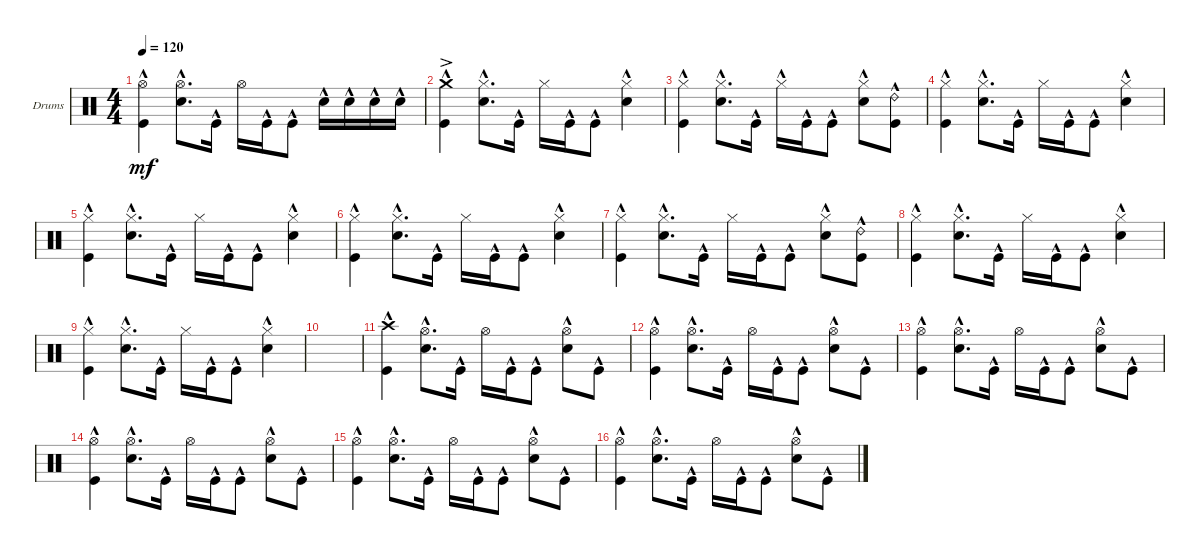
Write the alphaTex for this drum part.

\defaultSystemsLayout 4
\bracketExtendMode groupsimilarinstruments
\firstSystemTrackNameOrientation horizontal
\otherSystemsTrackNameOrientation horizontal
\track ("Drumkit" "Drums") {instrument percussion}
\staff {score}
\articulation defaults
\ts (4 4)
\tempo 120
\clef neutral
\ks c
("Kick (hit)"{hac} "Hi-Hat (open)").4{dy mf} ("Snare (hit) 2"{hac} "Hi-Hat (open)").8{d} "Kick (hit)"{hac}.16 "Hi-Hat (open)".16 "Kick (hit)"{hac}.16 "Kick (hit)"{hac}.8 "Snare (hit) 2"{hac}.16 "Snare (hit) 2"{hac}.16 "Snare (hit) 2"{hac}.16 "Snare (hit) 2"{hac}.16 |
("Kick (hit)"{hac} "Crash medium (hit)"{ac}).4 ("Snare (hit) 2"{hac} "Hi-Hat (closed)").8{d} "Kick (hit)"{hac}.16 "Hi-Hat (closed)".16 "Kick (hit)"{hac}.16 "Kick (hit)"{hac}.8 ("Snare (hit) 2"{hac} "Hi-Hat (closed)").4 |
("Kick (hit)"{hac} "Hi-Hat (closed)").4 ("Snare (hit) 2"{hac} "Hi-Hat (closed)").8{d} "Kick (hit)"{hac}.16 "Hi-Hat (closed)"{hac}.16 "Kick (hit)"{hac}.16 "Kick (hit)"{hac}.8 ("Snare (hit) 2"{hac} "Hi-Hat (closed)"{hac}).8 ("Kick (hit)"{hac} "Ride (bell) 2"{hac}).8 |
("Kick (hit)"{hac} "Hi-Hat (closed)").4 ("Snare (hit) 2"{hac} "Hi-Hat (closed)").8{d} "Kick (hit)"{hac}.16 "Hi-Hat (closed)".16 "Kick (hit)"{hac}.16 "Kick (hit)"{hac}.8 ("Snare (hit) 2"{hac} "Hi-Hat (closed)").4 |
("Kick (hit)"{hac} "Hi-Hat (closed)").4 ("Snare (hit) 2"{hac} "Hi-Hat (closed)").8{d} "Kick (hit)"{hac}.16 "Hi-Hat (closed)".16 "Kick (hit)"{hac}.16 "Kick (hit)"{hac}.8 ("Snare (hit) 2"{hac} "Hi-Hat (closed)"{hac}).4 |
("Kick (hit)"{hac} "Hi-Hat (closed)").4 ("Snare (hit) 2"{hac} "Hi-Hat (closed)").8{d} "Kick (hit)"{hac}.16 "Hi-Hat (closed)".16 "Kick (hit)"{hac}.16 "Kick (hit)"{hac}.8 ("Snare (hit) 2"{hac} "Hi-Hat (closed)").4 |
("Kick (hit)"{hac} "Hi-Hat (closed)").4 ("Snare (hit) 2"{hac} "Hi-Hat (closed)").8{d} "Kick (hit)"{hac}.16 "Hi-Hat (closed)".16 "Kick (hit)"{hac}.16 "Kick (hit)"{hac}.8 ("Snare (hit) 2"{hac} "Hi-Hat (closed)").8 ("Kick (hit)"{hac} "Ride (bell) 2"{hac}).8 |
("Kick (hit)"{hac} "Hi-Hat (closed)").4 ("Snare (hit) 2"{hac} "Hi-Hat (closed)").8{d} "Kick (hit)"{hac}.16 "Hi-Hat (closed)".16 "Kick (hit)"{hac}.16 "Kick (hit)"{hac}.8 ("Snare (hit) 2"{hac} "Hi-Hat (closed)").4 |
("Kick (hit)"{hac} "Hi-Hat (closed)").4 ("Snare (hit) 2"{hac} "Hi-Hat (closed)").8{d} "Kick (hit)"{hac}.16 "Hi-Hat (closed)".16 "Kick (hit)"{hac}.16 "Kick (hit)"{hac}.8 ("Snare (hit) 2"{hac} "Hi-Hat (closed)").4 |
|
("Kick (hit)"{hac} "Crash high (hit)"{hac}).4 ("Snare (hit) 2"{hac} "Hi-Hat (open)").8{d} "Kick (hit)"{hac}.16 "Hi-Hat (open)".16 "Kick (hit)"{hac}.16 "Kick (hit)"{hac}.8 ("Snare (hit) 2"{hac} "Hi-Hat (open)").8 "Kick (hit)"{hac}.8 |
("Kick (hit)"{hac} "Hi-Hat (open)").4 ("Snare (hit) 2"{hac} "Hi-Hat (open)").8{d} "Kick (hit)"{hac}.16 "Hi-Hat (open)".16 "Kick (hit)"{hac}.16 "Kick (hit)"{hac}.8 ("Snare (hit) 2"{hac} "Hi-Hat (open)").8 "Kick (hit)"{hac}.8 |
("Kick (hit)"{hac} "Hi-Hat (open)").4 ("Snare (hit) 2"{hac} "Hi-Hat (open)").8{d} "Kick (hit)"{hac}.16 "Hi-Hat (open)".16 "Kick (hit)"{hac}.16 "Kick (hit)"{hac}.8 ("Snare (hit) 2"{hac} "Hi-Hat (open)").8 "Kick (hit)"{hac}.8 |
("Kick (hit)"{hac} "Hi-Hat (open)").4 ("Snare (hit) 2"{hac} "Hi-Hat (open)").8{d} "Kick (hit)"{hac}.16 "Hi-Hat (open)".16 "Kick (hit)"{hac}.16 "Kick (hit)"{hac}.8 ("Snare (hit) 2"{hac} "Hi-Hat (open)").8 "Kick (hit)"{hac}.8 |
("Kick (hit)"{hac} "Hi-Hat (open)").4 ("Snare (hit) 2"{hac} "Hi-Hat (open)").8{d} "Kick (hit)"{hac}.16 "Hi-Hat (open)".16 "Kick (hit)"{hac}.16 "Kick (hit)"{hac}.8 ("Snare (hit) 2"{hac} "Hi-Hat (open)").8 "Kick (hit)"{hac}.8 |
("Kick (hit)"{hac} "Hi-Hat (open)").4 ("Snare (hit) 2"{hac} "Hi-Hat (open)").8{d} "Kick (hit)"{hac}.16 "Hi-Hat (open)".16 "Kick (hit)"{hac}.16 "Kick (hit)"{hac}.8 ("Snare (hit) 2"{hac} "Hi-Hat (open)").8 "Kick (hit)"{hac}.8
